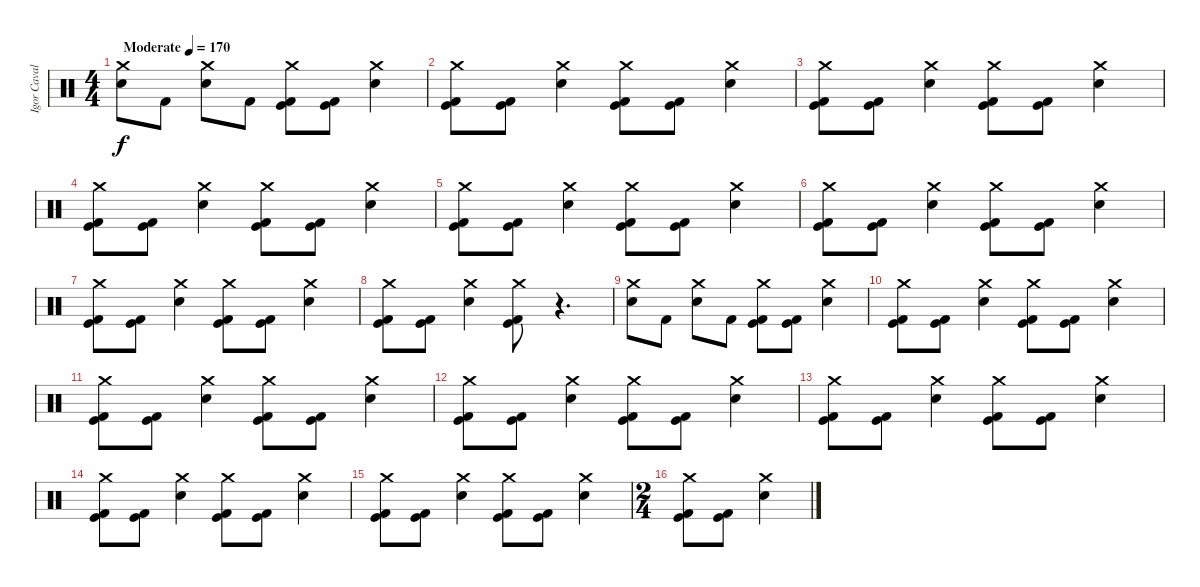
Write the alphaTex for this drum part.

\track ("Igor Cavalera" "Igor Caval") {instrument percussion}
\staff {score}
\articulation defaults
\ts (4 4)
\tempo (170 "Moderate")
\clef neutral
\ks c
("Crash medium (hit)" "Snare (hit) 2").8{dy f} "Kick (hit) 2".8 ("Crash medium (hit)" "Snare (hit) 2").8 "Kick (hit) 2".8 ("Crash medium (hit)" "Kick (hit)" "Kick (hit) 2").8 ("Kick (hit)" "Kick (hit) 2").8 ("Crash medium (hit)" "Snare (hit) 2").4 |
("Crash medium (hit)" "Kick (hit)" "Kick (hit) 2").8 ("Kick (hit)" "Kick (hit) 2").8 ("Crash medium (hit)" "Snare (hit) 2").4 ("Crash medium (hit)" "Kick (hit)" "Kick (hit) 2").8 ("Kick (hit)" "Kick (hit) 2").8 ("Crash medium (hit)" "Snare (hit) 2").4 |
("Crash medium (hit)" "Kick (hit)" "Kick (hit) 2").8 ("Kick (hit)" "Kick (hit) 2").8 ("Crash medium (hit)" "Snare (hit) 2").4 ("Crash medium (hit)" "Kick (hit)" "Kick (hit) 2").8 ("Kick (hit)" "Kick (hit) 2").8 ("Crash medium (hit)" "Snare (hit) 2").4 |
("Crash medium (hit)" "Kick (hit)" "Kick (hit) 2").8 ("Kick (hit)" "Kick (hit) 2").8 ("Crash medium (hit)" "Snare (hit) 2").4 ("Crash medium (hit)" "Kick (hit)" "Kick (hit) 2").8 ("Kick (hit)" "Kick (hit) 2").8 ("Crash medium (hit)" "Snare (hit) 2").4 |
("Crash medium (hit)" "Kick (hit)" "Kick (hit) 2").8 ("Kick (hit)" "Kick (hit) 2").8 ("Crash medium (hit)" "Snare (hit) 2").4 ("Crash medium (hit)" "Kick (hit)" "Kick (hit) 2").8 ("Kick (hit)" "Kick (hit) 2").8 ("Crash medium (hit)" "Snare (hit) 2").4 |
("Crash medium (hit)" "Kick (hit)" "Kick (hit) 2").8 ("Kick (hit)" "Kick (hit) 2").8 ("Crash medium (hit)" "Snare (hit) 2").4 ("Crash medium (hit)" "Kick (hit)" "Kick (hit) 2").8 ("Kick (hit)" "Kick (hit) 2").8 ("Crash medium (hit)" "Snare (hit) 2").4 |
("Crash medium (hit)" "Kick (hit)" "Kick (hit) 2").8 ("Kick (hit)" "Kick (hit) 2").8 ("Crash medium (hit)" "Snare (hit) 2").4 ("Crash medium (hit)" "Kick (hit)" "Kick (hit) 2").8 ("Kick (hit)" "Kick (hit) 2").8 ("Crash medium (hit)" "Snare (hit) 2").4 |
("Crash medium (hit)" "Kick (hit)" "Kick (hit) 2").8 ("Kick (hit)" "Kick (hit) 2").8 ("Crash medium (hit)" "Snare (hit) 2").4 ("Crash medium (hit)" "Kick (hit)" "Kick (hit) 2").8 r.4{d} |
("Crash medium (hit)" "Snare (hit) 2").8 "Kick (hit) 2".8 ("Crash medium (hit)" "Snare (hit) 2").8 "Kick (hit) 2".8 ("Crash medium (hit)" "Kick (hit)" "Kick (hit) 2").8 ("Kick (hit)" "Kick (hit) 2").8 ("Crash medium (hit)" "Snare (hit) 2").4 |
("Crash medium (hit)" "Kick (hit)" "Kick (hit) 2").8 ("Kick (hit)" "Kick (hit) 2").8 ("Crash medium (hit)" "Snare (hit) 2").4 ("Crash medium (hit)" "Kick (hit)" "Kick (hit) 2").8 ("Kick (hit)" "Kick (hit) 2").8 ("Crash medium (hit)" "Snare (hit) 2").4 |
("Crash medium (hit)" "Kick (hit)" "Kick (hit) 2").8 ("Kick (hit)" "Kick (hit) 2").8 ("Crash medium (hit)" "Snare (hit) 2").4 ("Crash medium (hit)" "Kick (hit)" "Kick (hit) 2").8 ("Kick (hit)" "Kick (hit) 2").8 ("Crash medium (hit)" "Snare (hit) 2").4 |
("Crash medium (hit)" "Kick (hit)" "Kick (hit) 2").8 ("Kick (hit)" "Kick (hit) 2").8 ("Crash medium (hit)" "Snare (hit) 2").4 ("Crash medium (hit)" "Kick (hit)" "Kick (hit) 2").8 ("Kick (hit)" "Kick (hit) 2").8 ("Crash medium (hit)" "Snare (hit) 2").4 |
("Crash medium (hit)" "Kick (hit)" "Kick (hit) 2").8 ("Kick (hit)" "Kick (hit) 2").8 ("Crash medium (hit)" "Snare (hit) 2").4 ("Crash medium (hit)" "Kick (hit)" "Kick (hit) 2").8 ("Kick (hit)" "Kick (hit) 2").8 ("Crash medium (hit)" "Snare (hit) 2").4 |
("Crash medium (hit)" "Kick (hit)" "Kick (hit) 2").8 ("Kick (hit)" "Kick (hit) 2").8 ("Crash medium (hit)" "Snare (hit) 2").4 ("Crash medium (hit)" "Kick (hit)" "Kick (hit) 2").8 ("Kick (hit)" "Kick (hit) 2").8 ("Crash medium (hit)" "Snare (hit) 2").4 |
("Crash medium (hit)" "Kick (hit)" "Kick (hit) 2").8 ("Kick (hit)" "Kick (hit) 2").8 ("Crash medium (hit)" "Snare (hit) 2").4 ("Crash medium (hit)" "Kick (hit)" "Kick (hit) 2").8 ("Kick (hit)" "Kick (hit) 2").8 ("Crash medium (hit)" "Snare (hit) 2").4 |
\ts (2 4)
("Crash medium (hit)" "Kick (hit)" "Kick (hit) 2").8 ("Kick (hit)" "Kick (hit) 2").8 ("Crash medium (hit)" "Snare (hit) 2").4
